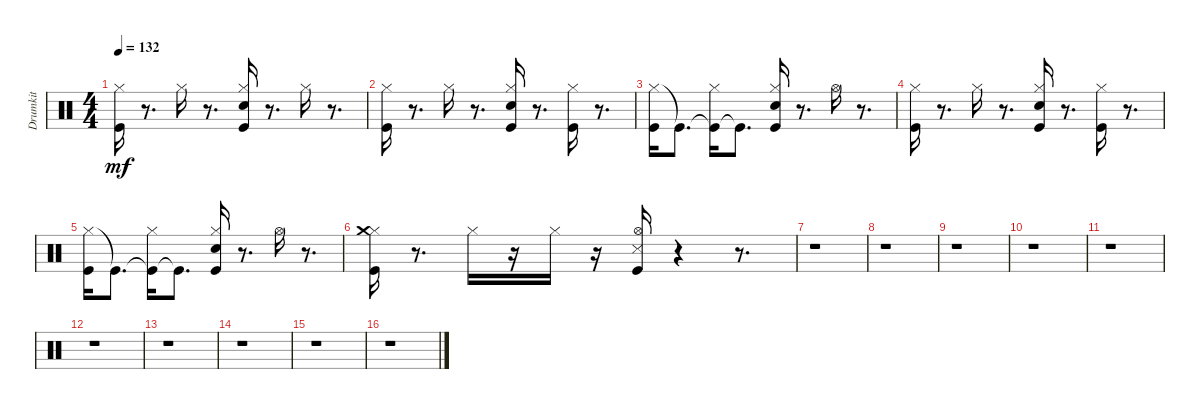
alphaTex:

\track ("Drumkit" "Drumkit") {instrument percussion}
\staff {score}
\articulation defaults
\ts (4 4)
\tempo 132
\clef neutral
\ks aminor
("Kick (hit)" "Hi-Hat (closed)").16{dy mf} r.8{d} "Hi-Hat (closed)".16 r.8{d} ("Kick (hit)" "Snare (hit) 2" "Hi-Hat (closed)").16 r.8{d} "Hi-Hat (closed)".16 r.8{d} |
("Kick (hit)" "Hi-Hat (closed)").16 r.8{d} "Hi-Hat (closed)".16 r.8{d} ("Kick (hit)" "Snare (hit) 2" "Hi-Hat (closed)").16 r.8{d} ("Kick (hit)" "Hi-Hat (closed)").16 r.8{d} |
("Hi-Hat (closed)" "Kick (hit)").16 "Kick (hit)"{t}.8{d} ("Kick (hit)"{t} "Hi-Hat (closed)").16 "Kick (hit)"{t}.8{d} ("Kick (hit)" "Snare (hit) 2" "Hi-Hat (closed)").16 r.8{d} "Hi-Hat (open)".16 r.8{d} |
("Kick (hit)" "Hi-Hat (closed)").16 r.8{d} "Hi-Hat (closed)".16 r.8{d} ("Kick (hit)" "Snare (hit) 2" "Hi-Hat (closed)").16 r.8{d} ("Kick (hit)" "Hi-Hat (closed)").16 r.8{d} |
("Hi-Hat (closed)" "Kick (hit)").16 "Kick (hit)"{t}.8{d} ("Kick (hit)"{t} "Hi-Hat (closed)").16 "Kick (hit)"{t}.8{d} ("Kick (hit)" "Snare (hit) 2" "Hi-Hat (closed)").16 r.8{d} "Hi-Hat (open)".16 r.8{d} |
("Kick (hit)" "Hi-Hat (closed)" "Crash medium (hit)").16 r.8{d} "Hi-Hat (closed)".16 r.16 "Hi-Hat (closed)".16 r.16 ("Kick (hit)" "Snare (side stick) 3" "Hi-Hat (open)").16 r.4 r.8{d} |
r.1 |
r.1 |
r.1 |
r.1 |
r.1 |
r.1 |
r.1 |
r.1 |
r.1 |
r.1
